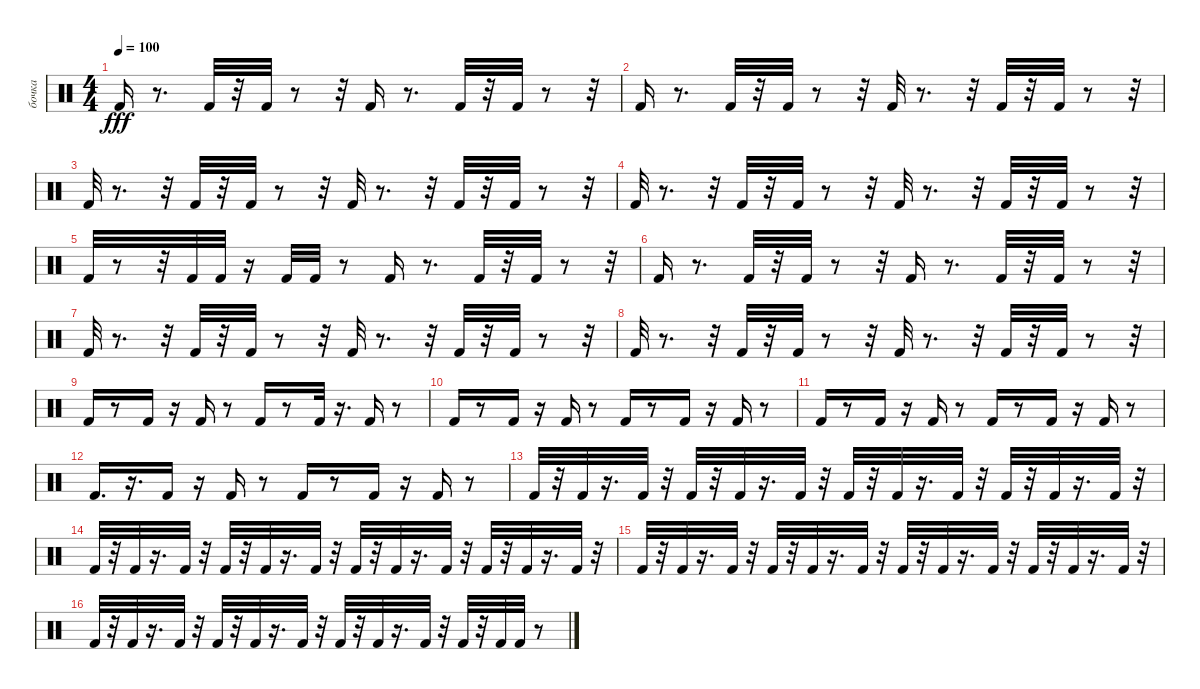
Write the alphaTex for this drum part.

\track ("бочка" "бочка") {instrument percussion}
\staff {score}
\articulation defaults
\ts (4 4)
\tempo 100
\clef neutral
\ks c "Kick (hit) 2".16{dy fff}
r.8{d} "Kick (hit) 2".32 r.32 "Kick (hit) 2".32 r.8 r.32 "Kick (hit) 2".16 r.8{d} "Kick (hit) 2".32 r.32 "Kick (hit) 2".32 r.8 r.32 |
"Kick (hit) 2".16 r.8{d} "Kick (hit) 2".32 r.32 "Kick (hit) 2".32 r.8 r.32 "Kick (hit) 2".32 r.8{d} r.32 "Kick (hit) 2".32 r.32 "Kick (hit) 2".32 r.8 r.32 |
"Kick (hit) 2".32 r.8{d} r.32 "Kick (hit) 2".32 r.32 "Kick (hit) 2".32 r.8 r.32 "Kick (hit) 2".32 r.8{d} r.32 "Kick (hit) 2".32 r.32 "Kick (hit) 2".32 r.8 r.32 |
"Kick (hit) 2".32 r.8{d} r.32 "Kick (hit) 2".32 r.32 "Kick (hit) 2".32 r.8 r.32 "Kick (hit) 2".32 r.8{d} r.32 "Kick (hit) 2".32 r.32 "Kick (hit) 2".32 r.8 r.32 |
"Kick (hit) 2".32 r.8 r.32 "Kick (hit) 2".32 "Kick (hit) 2".32 r.16 "Kick (hit) 2".32 "Kick (hit) 2".32 r.8 "Kick (hit) 2".16 r.8{d} "Kick (hit) 2".32 r.32 "Kick (hit) 2".32 r.8 r.32 |
"Kick (hit) 2".16 r.8{d} "Kick (hit) 2".32 r.32 "Kick (hit) 2".32 r.8 r.32 "Kick (hit) 2".16 r.8{d} "Kick (hit) 2".32 r.32 "Kick (hit) 2".32 r.8 r.32 |
"Kick (hit) 2".32 r.8{d} r.32 "Kick (hit) 2".32 r.32 "Kick (hit) 2".32 r.8 r.32 "Kick (hit) 2".32 r.8{d} r.32 "Kick (hit) 2".32 r.32 "Kick (hit) 2".32 r.8 r.32 |
"Kick (hit) 2".32 r.8{d} r.32 "Kick (hit) 2".32 r.32 "Kick (hit) 2".32 r.8 r.32 "Kick (hit) 2".32 r.8{d} r.32 "Kick (hit) 2".32 r.32 "Kick (hit) 2".32 r.8 r.32 |
"Kick (hit) 2".16 r.8 "Kick (hit) 2".16 r.16 "Kick (hit) 2".16 r.8 "Kick (hit) 2".16 r.8 "Kick (hit) 2".32 r.16{d} "Kick (hit) 2".16 r.8 |
"Kick (hit) 2".16 r.8 "Kick (hit) 2".16 r.16 "Kick (hit) 2".16 r.8 "Kick (hit) 2".16 r.8 "Kick (hit) 2".16 r.16 "Kick (hit) 2".16 r.8 |
"Kick (hit) 2".16 r.8 "Kick (hit) 2".16 r.16 "Kick (hit) 2".16 r.8 "Kick (hit) 2".16 r.8 "Kick (hit) 2".16 r.16 "Kick (hit) 2".16 r.8 |
"Kick (hit) 2".16{d} r.16{d} "Kick (hit) 2".16 r.16 "Kick (hit) 2".16 r.8 "Kick (hit) 2".16 r.8 "Kick (hit) 2".16 r.16 "Kick (hit) 2".16 r.8 |
"Kick (hit) 2".32 r.32 "Kick (hit) 2".32 r.16{d} "Kick (hit) 2".32 r.32 "Kick (hit) 2".32 r.32 "Kick (hit) 2".32 r.16{d} "Kick (hit) 2".32 r.32 "Kick (hit) 2".32 r.32 "Kick (hit) 2".32 r.16{d} "Kick (hit) 2".32 r.32 "Kick (hit) 2".32 r.32 "Kick (hit) 2".32 r.16{d} "Kick (hit) 2".32 r.32 |
"Kick (hit) 2".32 r.32 "Kick (hit) 2".32 r.16{d} "Kick (hit) 2".32 r.32 "Kick (hit) 2".32 r.32 "Kick (hit) 2".32 r.16{d} "Kick (hit) 2".32 r.32 "Kick (hit) 2".32 r.32 "Kick (hit) 2".32 r.16{d} "Kick (hit) 2".32 r.32 "Kick (hit) 2".32 r.32 "Kick (hit) 2".32 r.16{d} "Kick (hit) 2".32 r.32 |
"Kick (hit) 2".32 r.32 "Kick (hit) 2".32 r.16{d} "Kick (hit) 2".32 r.32 "Kick (hit) 2".32 r.32 "Kick (hit) 2".32 r.16{d} "Kick (hit) 2".32 r.32 "Kick (hit) 2".32 r.32 "Kick (hit) 2".32 r.16{d} "Kick (hit) 2".32 r.32 "Kick (hit) 2".32 r.32 "Kick (hit) 2".32 r.16{d} "Kick (hit) 2".32 r.32 |
"Kick (hit) 2".32 r.32 "Kick (hit) 2".32 r.16{d} "Kick (hit) 2".32 r.32 "Kick (hit) 2".32 r.32 "Kick (hit) 2".32 r.16{d} "Kick (hit) 2".32 r.32 "Kick (hit) 2".32 r.32 "Kick (hit) 2".32 r.16{d} "Kick (hit) 2".32 r.32 "Kick (hit) 2".32 r.32 "Kick (hit) 2".32 "Kick (hit) 2".32 r.8
